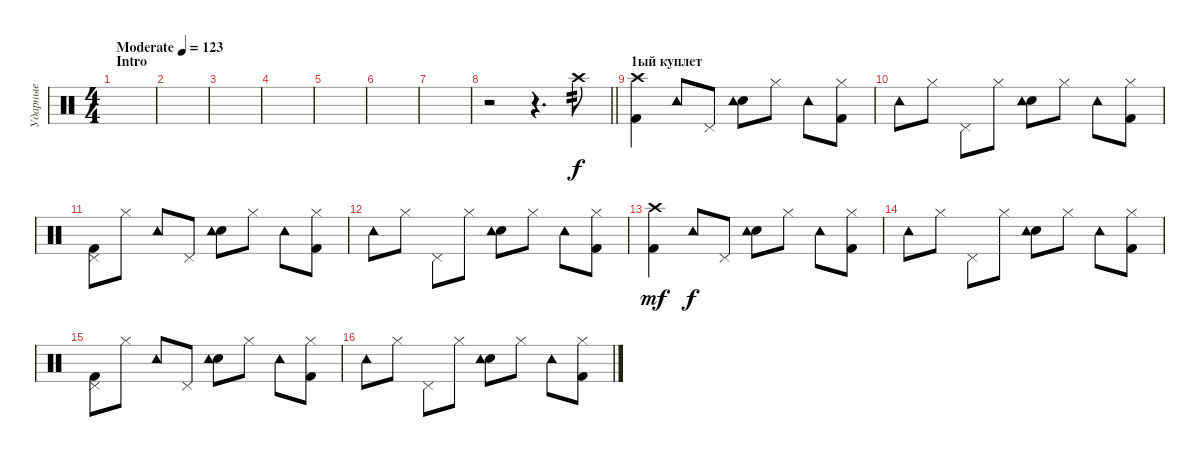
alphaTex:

\track ("Ударные" "Ударные") {instrument percussion}
\staff {score}
\articulation defaults
\ts (4 4)
\section ("" "Intro")
\tempo (123 "Moderate")
\clef neutral
\ks c
|
|
|
|
|
|
|
\barLineRight lightlight
r.2 r.4{d} "Crash high (hit)".8{tp 2} |
\section ("" "1ый куплет")
("Kick (hit) 2" "Crash high (hit)").4 "Tambourine (hit)".8{dy f} "Pedal Hi-Hat (hit)".8 ("Electric Snare (hit)" "Tambourine (hit)").8 "Hi-Hat (closed)".8 "Tambourine (hit)".8 ("Kick (hit) 2" "Hi-Hat (closed)").8 |
"Tambourine (hit)".8 "Hi-Hat (closed)".8 "Pedal Hi-Hat (hit)".8 "Hi-Hat (closed)".8 ("Snare (hit) 2" "Tambourine (hit)").8 "Hi-Hat (closed)".8 "Tambourine (hit)".8 ("Kick (hit) 2" "Hi-Hat (closed)").8 |
("Kick (hit) 2" "Pedal Hi-Hat (hit)").8 "Hi-Hat (closed)".8 "Tambourine (hit)".8 "Pedal Hi-Hat (hit)".8 ("Electric Snare (hit)" "Tambourine (hit)").8 "Hi-Hat (closed)".8 "Tambourine (hit)".8 ("Kick (hit) 2" "Hi-Hat (closed)").8 |
"Tambourine (hit)".8 "Hi-Hat (closed)".8 "Pedal Hi-Hat (hit)".8 "Hi-Hat (closed)".8 ("Snare (hit) 2" "Tambourine (hit)").8 "Hi-Hat (closed)".8 "Tambourine (hit)".8 ("Kick (hit) 2" "Hi-Hat (closed)").8 |
("Kick (hit) 2" "Crash high (hit)").4{dy mf} "Tambourine (hit)".8{dy f} "Pedal Hi-Hat (hit)".8 ("Electric Snare (hit)" "Tambourine (hit)").8 "Hi-Hat (closed)".8 "Tambourine (hit)".8 ("Kick (hit) 2" "Hi-Hat (closed)").8 |
"Tambourine (hit)".8 "Hi-Hat (closed)".8 "Pedal Hi-Hat (hit)".8 "Hi-Hat (closed)".8 ("Snare (hit) 2" "Tambourine (hit)").8 "Hi-Hat (closed)".8 "Tambourine (hit)".8 ("Kick (hit) 2" "Hi-Hat (closed)").8 |
("Kick (hit) 2" "Pedal Hi-Hat (hit)").8 "Hi-Hat (closed)".8 "Tambourine (hit)".8 "Pedal Hi-Hat (hit)".8 ("Electric Snare (hit)" "Tambourine (hit)").8 "Hi-Hat (closed)".8 "Tambourine (hit)".8 ("Kick (hit) 2" "Hi-Hat (closed)").8 |
"Tambourine (hit)".8 "Hi-Hat (closed)".8 "Pedal Hi-Hat (hit)".8 "Hi-Hat (closed)".8 ("Snare (hit) 2" "Tambourine (hit)").8 "Hi-Hat (closed)".8 "Tambourine (hit)".8 ("Kick (hit) 2" "Hi-Hat (closed)").8
